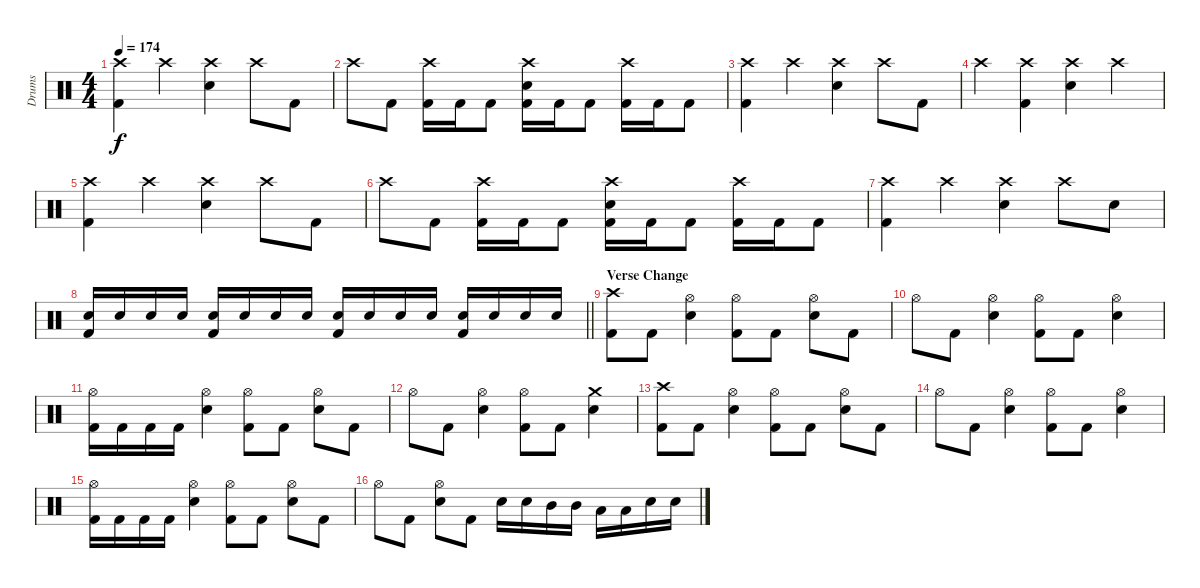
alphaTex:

\track ("Drums" "Drums") {instrument percussion}
\staff {score}
\articulation defaults
\ts (4 4)
\tempo 174
\clef neutral
\ks c
("Crash high (hit)" "Kick (hit) 2").4{dy f} "Crash high (hit)".4 ("Crash high (hit)" "Electric Snare (hit)").4 "Crash high (hit)".8 "Kick (hit) 2".8 |
"Crash high (hit)".8 "Kick (hit) 2".8 ("Crash high (hit)" "Kick (hit) 2").16 "Kick (hit) 2".16 "Kick (hit) 2".8 ("Crash high (hit)" "Electric Snare (hit)" "Kick (hit) 2").16 "Kick (hit) 2".16 "Kick (hit) 2".8 ("Crash high (hit)" "Kick (hit) 2").16 "Kick (hit) 2".16 "Kick (hit) 2".8 |
("Crash high (hit)" "Kick (hit) 2").4 "Crash high (hit)".4 ("Crash high (hit)" "Electric Snare (hit)").4 "Crash high (hit)".8 "Kick (hit) 2".8 |
"Crash high (hit)".4 ("Crash high (hit)" "Kick (hit) 2").4 ("Crash high (hit)" "Electric Snare (hit)").4 "Crash high (hit)".4 |
("Crash high (hit)" "Kick (hit) 2").4 "Crash high (hit)".4 ("Crash high (hit)" "Electric Snare (hit)").4 "Crash high (hit)".8 "Kick (hit) 2".8 |
"Crash high (hit)".8 "Kick (hit) 2".8 ("Crash high (hit)" "Kick (hit) 2").16 "Kick (hit) 2".16 "Kick (hit) 2".8 ("Crash high (hit)" "Electric Snare (hit)" "Kick (hit) 2").16 "Kick (hit) 2".16 "Kick (hit) 2".8 ("Crash high (hit)" "Kick (hit) 2").16 "Kick (hit) 2".16 "Kick (hit) 2".8 |
("Crash high (hit)" "Kick (hit) 2").4 "Crash high (hit)".4 ("Crash high (hit)" "Electric Snare (hit)").4 "Crash high (hit)".8 "Electric Snare (hit)".8 |
\barLineRight lightlight
("Electric Snare (hit)" "Kick (hit) 2").16 "Electric Snare (hit)".16 "Electric Snare (hit)".16 "Electric Snare (hit)".16 ("Electric Snare (hit)" "Kick (hit) 2").16 "Electric Snare (hit)".16 "Electric Snare (hit)".16 "Electric Snare (hit)".16 ("Electric Snare (hit)" "Kick (hit) 2").16 "Electric Snare (hit)".16 "Electric Snare (hit)".16 "Electric Snare (hit)".16 ("Electric Snare (hit)" "Kick (hit) 2").16 "Electric Snare (hit)".16 "Electric Snare (hit)".16 "Electric Snare (hit)".16 |
\section ("" "Verse Change")
("Crash high (hit)" "Kick (hit) 2").8 "Kick (hit) 2".8 ("Hi-Hat (open)" "Electric Snare (hit)").4 ("Hi-Hat (open)" "Kick (hit) 2").8 "Kick (hit) 2".8 ("Hi-Hat (open)" "Electric Snare (hit)").8 "Kick (hit) 2".8 |
"Hi-Hat (open)".8 "Kick (hit) 2".8 ("Hi-Hat (open)" "Electric Snare (hit)").4 ("Hi-Hat (open)" "Kick (hit) 2").8 "Kick (hit) 2".8 ("Hi-Hat (open)" "Electric Snare (hit)").4 |
("Hi-Hat (open)" "Kick (hit) 2").16 "Kick (hit) 2".16 "Kick (hit) 2".16 "Kick (hit) 2".16 ("Hi-Hat (open)" "Electric Snare (hit)").4 ("Hi-Hat (open)" "Kick (hit) 2").8 "Kick (hit) 2".8 ("Hi-Hat (open)" "Electric Snare (hit)").8 "Kick (hit) 2".8 |
"Hi-Hat (open)".8 "Kick (hit) 2".8 ("Hi-Hat (open)" "Electric Snare (hit)").4 ("Hi-Hat (open)" "Kick (hit) 2").8 "Kick (hit) 2".8 ("Crash medium (hit)" "Electric Snare (hit)").4 |
("Crash high (hit)" "Kick (hit) 2").8 "Kick (hit) 2".8 ("Hi-Hat (open)" "Electric Snare (hit)").4 ("Hi-Hat (open)" "Kick (hit) 2").8 "Kick (hit) 2".8 ("Hi-Hat (open)" "Electric Snare (hit)").8 "Kick (hit) 2".8 |
"Hi-Hat (open)".8 "Kick (hit) 2".8 ("Hi-Hat (open)" "Electric Snare (hit)").4 ("Hi-Hat (open)" "Kick (hit) 2").8 "Kick (hit) 2".8 ("Hi-Hat (open)" "Electric Snare (hit)").4 |
("Hi-Hat (open)" "Kick (hit) 2").16 "Kick (hit) 2".16 "Kick (hit) 2".16 "Kick (hit) 2".16 ("Hi-Hat (open)" "Electric Snare (hit)").4 ("Hi-Hat (open)" "Kick (hit) 2").8 "Kick (hit) 2".8 ("Hi-Hat (open)" "Electric Snare (hit)").8 "Kick (hit) 2".8 |
"Hi-Hat (open)".8 "Kick (hit) 2".8 ("Hi-Hat (open)" "Electric Snare (hit)").8 "Kick (hit) 2".8 "Electric Snare (hit)".16 "Electric Snare (hit)".16 "Mid Tom (hit)".16 "Mid Tom (hit)".16 "Low Tom (hit)".16 "Low Tom (hit)".16 "Electric Snare (hit)".16 "Electric Snare (hit)".16
